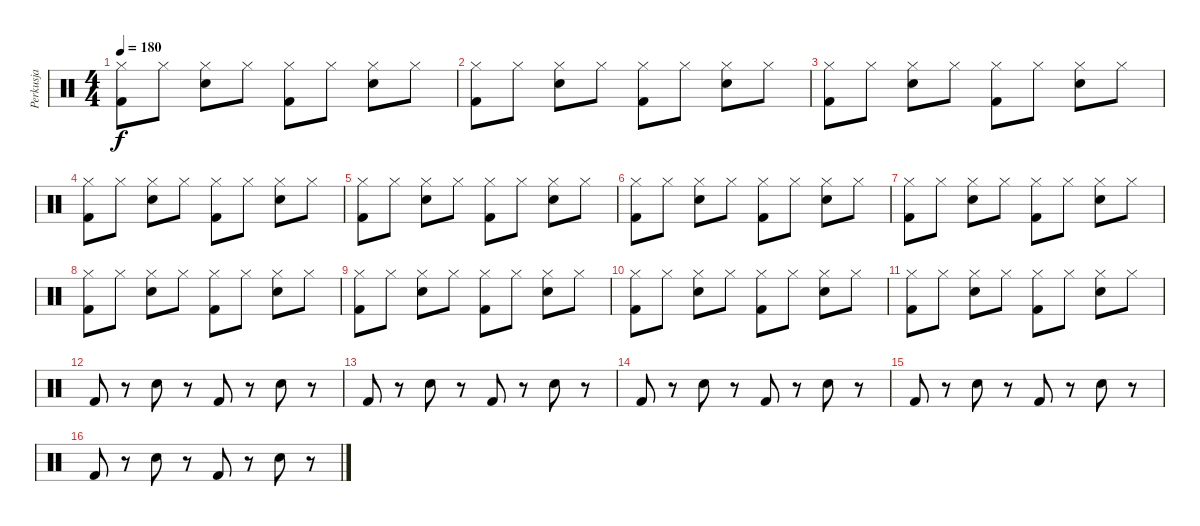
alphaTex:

\track ("Perkusja" "Perkusja") {instrument percussion}
\staff {score}
\articulation defaults
\ts (4 4)
\tempo 180
\clef neutral
\ks c
("Hi-Hat (closed)" "Kick (hit) 2").8{dy f} "Hi-Hat (closed)".8 ("Hi-Hat (closed)" "Electric Snare (hit)").8 "Hi-Hat (closed)".8 ("Hi-Hat (closed)" "Kick (hit) 2").8 "Hi-Hat (closed)".8 ("Hi-Hat (closed)" "Electric Snare (hit)").8 "Hi-Hat (closed)".8 |
("Hi-Hat (closed)" "Kick (hit) 2").8 "Hi-Hat (closed)".8 ("Hi-Hat (closed)" "Electric Snare (hit)").8 "Hi-Hat (closed)".8 ("Hi-Hat (closed)" "Kick (hit) 2").8 "Hi-Hat (closed)".8 ("Hi-Hat (closed)" "Electric Snare (hit)").8 "Hi-Hat (closed)".8 |
("Hi-Hat (closed)" "Kick (hit) 2").8 "Hi-Hat (closed)".8 ("Hi-Hat (closed)" "Electric Snare (hit)").8 "Hi-Hat (closed)".8 ("Hi-Hat (closed)" "Kick (hit) 2").8 "Hi-Hat (closed)".8 ("Hi-Hat (closed)" "Electric Snare (hit)").8 "Hi-Hat (closed)".8 |
("Hi-Hat (closed)" "Kick (hit) 2").8 "Hi-Hat (closed)".8 ("Hi-Hat (closed)" "Electric Snare (hit)").8 "Hi-Hat (closed)".8 ("Hi-Hat (closed)" "Kick (hit) 2").8 "Hi-Hat (closed)".8 ("Hi-Hat (closed)" "Electric Snare (hit)").8 "Hi-Hat (closed)".8 |
("Hi-Hat (closed)" "Kick (hit) 2").8 "Hi-Hat (closed)".8 ("Hi-Hat (closed)" "Electric Snare (hit)").8 "Hi-Hat (closed)".8 ("Hi-Hat (closed)" "Kick (hit) 2").8 "Hi-Hat (closed)".8 ("Hi-Hat (closed)" "Electric Snare (hit)").8 "Hi-Hat (closed)".8 |
("Hi-Hat (closed)" "Kick (hit) 2").8 "Hi-Hat (closed)".8 ("Hi-Hat (closed)" "Electric Snare (hit)").8 "Hi-Hat (closed)".8 ("Hi-Hat (closed)" "Kick (hit) 2").8 "Hi-Hat (closed)".8 ("Hi-Hat (closed)" "Electric Snare (hit)").8 "Hi-Hat (closed)".8 |
("Hi-Hat (closed)" "Kick (hit) 2").8 "Hi-Hat (closed)".8 ("Hi-Hat (closed)" "Electric Snare (hit)").8 "Hi-Hat (closed)".8 ("Hi-Hat (closed)" "Kick (hit) 2").8 "Hi-Hat (closed)".8 ("Hi-Hat (closed)" "Electric Snare (hit)").8 "Hi-Hat (closed)".8 |
("Hi-Hat (closed)" "Kick (hit) 2").8 "Hi-Hat (closed)".8 ("Hi-Hat (closed)" "Electric Snare (hit)").8 "Hi-Hat (closed)".8 ("Hi-Hat (closed)" "Kick (hit) 2").8 "Hi-Hat (closed)".8 ("Hi-Hat (closed)" "Electric Snare (hit)").8 "Hi-Hat (closed)".8 |
("Hi-Hat (closed)" "Kick (hit) 2").8 "Hi-Hat (closed)".8 ("Hi-Hat (closed)" "Electric Snare (hit)").8 "Hi-Hat (closed)".8 ("Hi-Hat (closed)" "Kick (hit) 2").8 "Hi-Hat (closed)".8 ("Hi-Hat (closed)" "Electric Snare (hit)").8 "Hi-Hat (closed)".8 |
("Hi-Hat (closed)" "Kick (hit) 2").8 "Hi-Hat (closed)".8 ("Hi-Hat (closed)" "Electric Snare (hit)").8 "Hi-Hat (closed)".8 ("Hi-Hat (closed)" "Kick (hit) 2").8 "Hi-Hat (closed)".8 ("Hi-Hat (closed)" "Electric Snare (hit)").8 "Hi-Hat (closed)".8 |
("Hi-Hat (closed)" "Kick (hit) 2").8 "Hi-Hat (closed)".8 ("Hi-Hat (closed)" "Electric Snare (hit)").8 "Hi-Hat (closed)".8 ("Hi-Hat (closed)" "Kick (hit) 2").8 "Hi-Hat (closed)".8 ("Hi-Hat (closed)" "Electric Snare (hit)").8 "Hi-Hat (closed)".8 |
"Kick (hit) 2".8 r.8 "Electric Snare (hit)".8 r.8 "Kick (hit) 2".8 r.8 "Electric Snare (hit)".8 r.8 |
"Kick (hit) 2".8 r.8 "Electric Snare (hit)".8 r.8 "Kick (hit) 2".8 r.8 "Electric Snare (hit)".8 r.8 |
"Kick (hit) 2".8 r.8 "Electric Snare (hit)".8 r.8 "Kick (hit) 2".8 r.8 "Electric Snare (hit)".8 r.8 |
"Kick (hit) 2".8 r.8 "Electric Snare (hit)".8 r.8 "Kick (hit) 2".8 r.8 "Electric Snare (hit)".8 r.8 |
"Kick (hit) 2".8 r.8 "Electric Snare (hit)".8 r.8 "Kick (hit) 2".8 r.8 "Electric Snare (hit)".8 r.8
